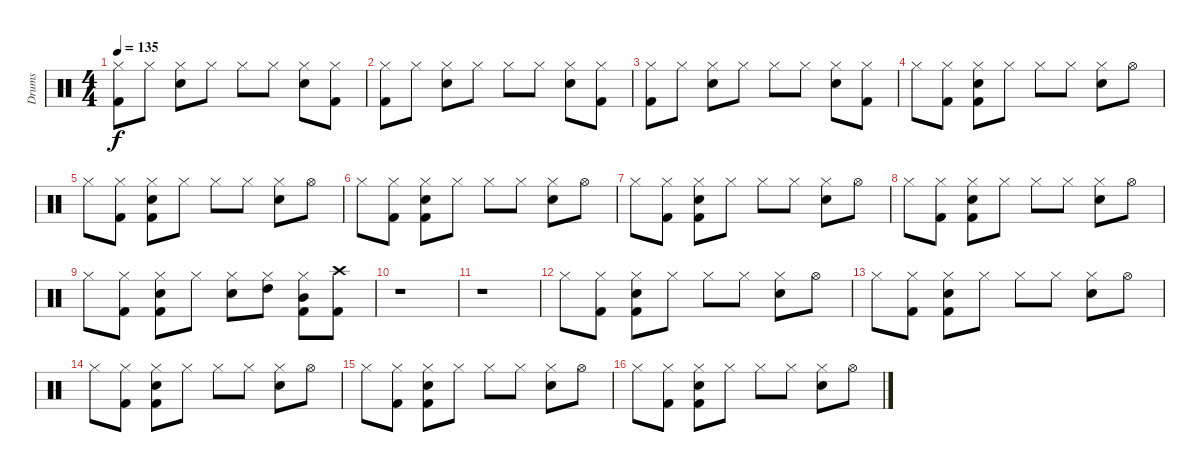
\track ("Drums" "Drums") {instrument percussion}
\staff {score}
\articulation defaults
\ts (4 4)
\tempo 135
\clef neutral
\ks c
("Kick (hit) 2" "Hi-Hat (closed)").8{dy f} "Hi-Hat (closed)".8 ("Snare (hit) 2" "Hi-Hat (closed)").8 "Hi-Hat (closed)".8 "Hi-Hat (closed)".8 "Hi-Hat (closed)".8 ("Snare (hit) 2" "Hi-Hat (closed)").8 ("Kick (hit) 2" "Hi-Hat (closed)").8 |
("Kick (hit) 2" "Hi-Hat (closed)").8 "Hi-Hat (closed)".8 ("Snare (hit) 2" "Hi-Hat (closed)").8 "Hi-Hat (closed)".8 "Hi-Hat (closed)".8 "Hi-Hat (closed)".8 ("Snare (hit) 2" "Hi-Hat (closed)").8 ("Kick (hit) 2" "Hi-Hat (closed)").8 |
("Kick (hit) 2" "Hi-Hat (closed)").8 "Hi-Hat (closed)".8 ("Snare (hit) 2" "Hi-Hat (closed)").8 "Hi-Hat (closed)".8 "Hi-Hat (closed)".8 "Hi-Hat (closed)".8 ("Snare (hit) 2" "Hi-Hat (closed)").8 ("Kick (hit) 2" "Hi-Hat (closed)").8 |
"Hi-Hat (closed)".8 ("Hi-Hat (closed)" "Kick (hit) 2").8 ("Hi-Hat (closed)" "Kick (hit) 2" "Snare (hit) 2").8 "Hi-Hat (closed)".8 "Hi-Hat (closed)".8 "Hi-Hat (closed)".8 ("Hi-Hat (closed)" "Snare (hit) 2").8 "Hi-Hat (open)".8 |
"Hi-Hat (closed)".8 ("Hi-Hat (closed)" "Kick (hit) 2").8 ("Hi-Hat (closed)" "Kick (hit) 2" "Snare (hit) 2").8 "Hi-Hat (closed)".8 "Hi-Hat (closed)".8 "Hi-Hat (closed)".8 ("Hi-Hat (closed)" "Snare (hit) 2").8 "Hi-Hat (open)".8 |
"Hi-Hat (closed)".8 ("Hi-Hat (closed)" "Kick (hit) 2").8 ("Hi-Hat (closed)" "Kick (hit) 2" "Snare (hit) 2").8 "Hi-Hat (closed)".8 "Hi-Hat (closed)".8 "Hi-Hat (closed)".8 ("Hi-Hat (closed)" "Snare (hit) 2").8 "Hi-Hat (open)".8 |
"Hi-Hat (closed)".8 ("Hi-Hat (closed)" "Kick (hit) 2").8 ("Hi-Hat (closed)" "Kick (hit) 2" "Snare (hit) 2").8 "Hi-Hat (closed)".8 "Hi-Hat (closed)".8 "Hi-Hat (closed)".8 ("Hi-Hat (closed)" "Snare (hit) 2").8 "Hi-Hat (open)".8 |
"Hi-Hat (closed)".8 ("Hi-Hat (closed)" "Kick (hit) 2").8 ("Hi-Hat (closed)" "Kick (hit) 2" "Snare (hit) 2").8 "Hi-Hat (closed)".8 "Hi-Hat (closed)".8 "Hi-Hat (closed)".8 ("Hi-Hat (closed)" "Snare (hit) 2").8 "Hi-Hat (open)".8 |
"Hi-Hat (closed)".8 ("Kick (hit) 2" "Hi-Hat (closed)").8 ("Kick (hit) 2" "Snare (hit) 2" "Hi-Hat (closed)").8 "Hi-Hat (closed)".8 ("Hi-Hat (closed)" "Snare (hit) 2").8 ("Hi-Hat (closed)" "High Tom (hit)").8 ("Kick (hit) 2" "Hi-Hat (closed)" "Mid Tom (hit)").8 ("Kick (hit) 2" "Crash high (hit)").8 |
r.1 |
r.1 |
"Hi-Hat (closed)".8 ("Hi-Hat (closed)" "Kick (hit) 2").8 ("Hi-Hat (closed)" "Kick (hit) 2" "Snare (hit) 2").8 "Hi-Hat (closed)".8 "Hi-Hat (closed)".8 "Hi-Hat (closed)".8 ("Hi-Hat (closed)" "Snare (hit) 2").8 "Hi-Hat (open)".8 |
"Hi-Hat (closed)".8 ("Hi-Hat (closed)" "Kick (hit) 2").8 ("Hi-Hat (closed)" "Kick (hit) 2" "Snare (hit) 2").8 "Hi-Hat (closed)".8 "Hi-Hat (closed)".8 "Hi-Hat (closed)".8 ("Hi-Hat (closed)" "Snare (hit) 2").8 "Hi-Hat (open)".8 |
"Hi-Hat (closed)".8 ("Hi-Hat (closed)" "Kick (hit) 2").8 ("Hi-Hat (closed)" "Kick (hit) 2" "Snare (hit) 2").8 "Hi-Hat (closed)".8 "Hi-Hat (closed)".8 "Hi-Hat (closed)".8 ("Hi-Hat (closed)" "Snare (hit) 2").8 "Hi-Hat (open)".8 |
"Hi-Hat (closed)".8 ("Hi-Hat (closed)" "Kick (hit) 2").8 ("Hi-Hat (closed)" "Kick (hit) 2" "Snare (hit) 2").8 "Hi-Hat (closed)".8 "Hi-Hat (closed)".8 "Hi-Hat (closed)".8 ("Hi-Hat (closed)" "Snare (hit) 2").8 "Hi-Hat (open)".8 |
"Hi-Hat (closed)".8 ("Hi-Hat (closed)" "Kick (hit) 2").8 ("Hi-Hat (closed)" "Kick (hit) 2" "Snare (hit) 2").8 "Hi-Hat (closed)".8 "Hi-Hat (closed)".8 "Hi-Hat (closed)".8 ("Hi-Hat (closed)" "Snare (hit) 2").8 "Hi-Hat (open)".8
